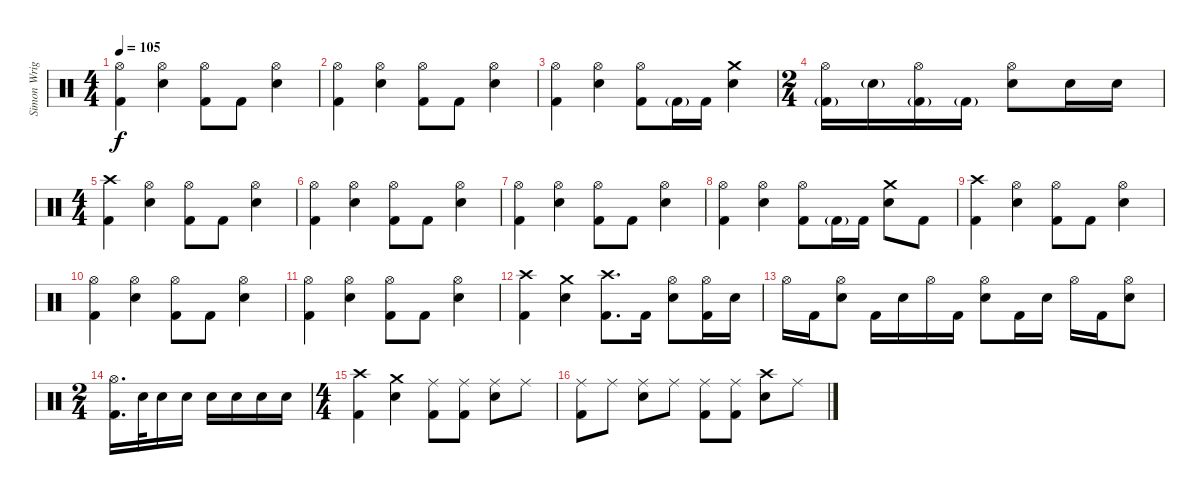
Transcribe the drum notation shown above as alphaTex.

\track ("Simon Wright" "Simon Wrig") {instrument percussion}
\staff {score}
\articulation defaults
\ts (4 4)
\tempo 105
\clef neutral
\ks c
("Hi-Hat (open)" "Kick (hit) 2").4{dy f} ("Hi-Hat (open)" "Snare (hit) 2").4 ("Hi-Hat (open)" "Kick (hit) 2").8 "Kick (hit) 2".8 ("Hi-Hat (open)" "Snare (hit) 2").4 |
("Hi-Hat (open)" "Kick (hit) 2").4 ("Hi-Hat (open)" "Snare (hit) 2").4 ("Hi-Hat (open)" "Kick (hit) 2").8 "Kick (hit) 2".8 ("Hi-Hat (open)" "Snare (hit) 2").4 |
("Hi-Hat (open)" "Kick (hit) 2").4 ("Hi-Hat (open)" "Snare (hit) 2").4 ("Hi-Hat (open)" "Kick (hit) 2").8 "Kick (hit) 2"{g}.16 "Kick (hit) 2".16 ("Crash medium (hit)" "Snare (hit) 2").4 |
\ts (2 4)
("Hi-Hat (open)" "Kick (hit) 2"{g}).16 "Snare (hit) 2"{g}.16 ("Hi-Hat (open)" "Kick (hit) 2"{g}).16 "Kick (hit) 2"{g}.16 ("Hi-Hat (open)" "Snare (hit) 2").8 "Snare (hit) 2".16 "Snare (hit) 2".16 |
\ts (4 4)
("Crash high (hit)" "Kick (hit) 2").4 ("Hi-Hat (open)" "Snare (hit) 2").4 ("Hi-Hat (open)" "Kick (hit) 2").8 "Kick (hit) 2".8 ("Hi-Hat (open)" "Snare (hit) 2").4 |
("Hi-Hat (open)" "Kick (hit) 2").4 ("Hi-Hat (open)" "Snare (hit) 2").4 ("Hi-Hat (open)" "Kick (hit) 2").8 "Kick (hit) 2".8 ("Hi-Hat (open)" "Snare (hit) 2").4 |
("Hi-Hat (open)" "Kick (hit) 2").4 ("Hi-Hat (open)" "Snare (hit) 2").4 ("Hi-Hat (open)" "Kick (hit) 2").8 "Kick (hit) 2".8 ("Hi-Hat (open)" "Snare (hit) 2").4 |
("Hi-Hat (open)" "Kick (hit) 2").4 ("Hi-Hat (open)" "Snare (hit) 2").4 ("Hi-Hat (open)" "Kick (hit) 2").8 "Kick (hit) 2"{g}.16 "Kick (hit) 2".16 ("Crash medium (hit)" "Snare (hit) 2").8 "Kick (hit) 2".8 |
("Crash high (hit)" "Kick (hit) 2").4 ("Hi-Hat (open)" "Snare (hit) 2").4 ("Hi-Hat (open)" "Kick (hit) 2").8 "Kick (hit) 2".8 ("Hi-Hat (open)" "Snare (hit) 2").4 |
("Hi-Hat (open)" "Kick (hit) 2").4 ("Hi-Hat (open)" "Snare (hit) 2").4 ("Hi-Hat (open)" "Kick (hit) 2").8 "Kick (hit) 2".8 ("Hi-Hat (open)" "Snare (hit) 2").4 |
("Hi-Hat (open)" "Kick (hit) 2").4 ("Hi-Hat (open)" "Snare (hit) 2").4 ("Hi-Hat (open)" "Kick (hit) 2").8 "Kick (hit) 2".8 ("Hi-Hat (open)" "Snare (hit) 2").4 |
("Crash high (hit)" "Kick (hit) 2").4 ("Crash medium (hit)" "Snare (hit) 2").4 ("Crash high (hit)" "Kick (hit) 2").8{d} "Kick (hit) 2".16 ("Hi-Hat (open)" "Snare (hit) 2").8 ("Hi-Hat (open)" "Kick (hit) 2").16 "Snare (hit) 2".16 |
"Hi-Hat (open)".16 "Kick (hit) 2".16 ("Hi-Hat (open)" "Snare (hit) 2").8 "Kick (hit) 2".16 "Snare (hit) 2".16 "Hi-Hat (open)".16 "Kick (hit) 2".16 ("Hi-Hat (open)" "Snare (hit) 2").8 "Kick (hit) 2".16 "Snare (hit) 2".16 "Hi-Hat (open)".16 "Kick (hit) 2".16 ("Hi-Hat (open)" "Snare (hit) 2").8 |
\ts (2 4)
("Hi-Hat (open)" "Kick (hit) 2").16{d} "Snare (hit) 2".32 "Snare (hit) 2".16 "Snare (hit) 2".16 "Snare (hit) 2".16 "Snare (hit) 2".16 "Snare (hit) 2".16 "Snare (hit) 2".16 |
\ts (4 4)
("Crash high (hit)" "Kick (hit) 2").4 ("Crash medium (hit)" "Snare (hit) 2").4 ("Ride (middle)" "Kick (hit) 2").8 ("Ride (middle)" "Kick (hit) 2").8 ("Ride (middle)" "Snare (hit) 2").8 "Ride (middle)".8 |
("Ride (middle)" "Kick (hit) 2").8 "Ride (middle)".8 ("Ride (middle)" "Snare (hit) 2").8 "Ride (middle)".8 ("Ride (middle)" "Kick (hit) 2").8 ("Ride (middle)" "Kick (hit) 2").8 ("Crash high (hit)" "Snare (hit) 2").8 "Ride (middle)".8
